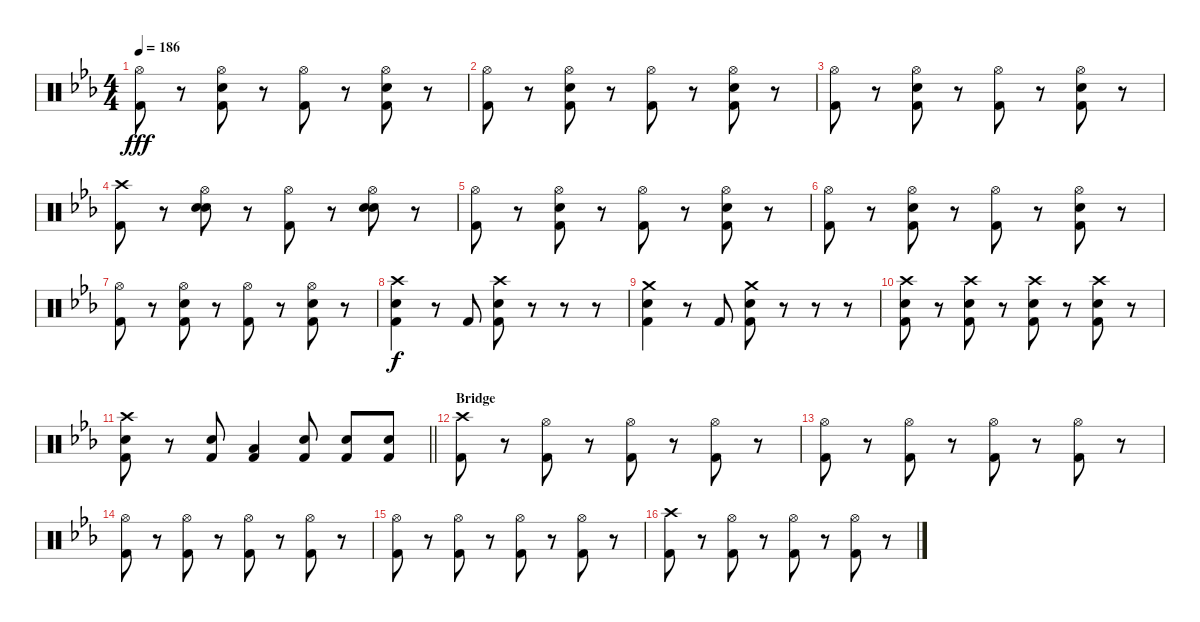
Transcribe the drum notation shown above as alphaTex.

\track "" {instrument percussion}
\staff {score}
\articulation defaults
\ts (4 4)
\tempo 186
\clef neutral
\ks eb
("Hi-Hat (open)" "Kick (hit) 2").8{dy fff} r.8 ("Hi-Hat (open)" "Snare (hit) 2" "Kick (hit) 2").8 r.8 ("Hi-Hat (open)" "Kick (hit) 2").8 r.8 ("Hi-Hat (open)" "Snare (hit) 2" "Kick (hit) 2").8 r.8 |
("Hi-Hat (open)" "Kick (hit) 2").8 r.8 ("Hi-Hat (open)" "Snare (hit) 2" "Kick (hit) 2").8 r.8 ("Hi-Hat (open)" "Kick (hit) 2").8 r.8 ("Hi-Hat (open)" "Snare (hit) 2" "Kick (hit) 2").8 r.8 |
("Hi-Hat (open)" "Kick (hit) 2").8 r.8 ("Hi-Hat (open)" "Snare (hit) 2" "Kick (hit) 2").8 r.8 ("Hi-Hat (open)" "Kick (hit) 2").8 r.8 ("Hi-Hat (open)" "Snare (hit) 2" "Kick (hit) 2").8 r.8 |
("Crash high (hit)" "Kick (hit) 2").8 r.8 ("Hi-Hat (open)" "Snare (hit) 2" "Snare (hit) 2").8 r.8 ("Hi-Hat (open)" "Kick (hit) 2").8 r.8 ("Hi-Hat (open)" "Snare (hit) 2" "Snare (hit) 2").8 r.8 |
("Hi-Hat (open)" "Kick (hit) 2").8 r.8 ("Hi-Hat (open)" "Snare (hit) 2" "Kick (hit) 2").8 r.8 ("Hi-Hat (open)" "Kick (hit) 2").8 r.8 ("Hi-Hat (open)" "Snare (hit) 2" "Kick (hit) 2").8 r.8 |
("Hi-Hat (open)" "Kick (hit) 2").8 r.8 ("Hi-Hat (open)" "Snare (hit) 2" "Kick (hit) 2").8 r.8 ("Hi-Hat (open)" "Kick (hit) 2").8 r.8 ("Hi-Hat (open)" "Snare (hit) 2" "Kick (hit) 2").8 r.8 |
("Hi-Hat (open)" "Kick (hit) 2").8 r.8 ("Hi-Hat (open)" "Snare (hit) 2" "Kick (hit) 2").8 r.8 ("Hi-Hat (open)" "Kick (hit) 2").8 r.8 ("Hi-Hat (open)" "Snare (hit) 2" "Kick (hit) 2").8 r.8 |
("Crash high (hit)" "Snare (hit) 2" "Kick (hit) 2").4{dy f} r.8 "Kick (hit) 2".8 ("Crash high (hit)" "Snare (hit) 2" "Kick (hit) 2").8 r.8 r.8 r.8 |
("Crash medium (hit)" "Snare (hit) 2" "Kick (hit) 2").4 r.8 "Kick (hit) 2".8 ("Crash medium (hit)" "Snare (hit) 2" "Kick (hit) 2").8 r.8 r.8 r.8 |
("Crash high (hit)" "Snare (hit) 2" "Kick (hit) 2").8 r.8 ("Crash high (hit)" "Snare (hit) 2" "Kick (hit) 2").8 r.8 ("Crash high (hit)" "Snare (hit) 2" "Kick (hit) 2").8 r.8 ("Crash high (hit)" "Snare (hit) 2" "Kick (hit) 2").8 r.8 |
\barLineRight lightlight
("Crash high (hit)" "Snare (hit) 2" "Kick (hit) 2").8 r.8 ("Snare (hit) 2" "Kick (hit) 2").8 ("Low Tom (hit)" "Kick (hit) 2").4 ("Snare (hit) 2" "Kick (hit) 2").8 ("Snare (hit) 2" "Kick (hit) 2").8 ("Snare (hit) 2" "Kick (hit) 2").8 |
\section ("" "Bridge")
("Crash high (hit)" "Kick (hit) 2").8 r.8 ("Hi-Hat (open)" "Kick (hit) 2").8 r.8 ("Hi-Hat (open)" "Kick (hit) 2").8 r.8 ("Hi-Hat (open)" "Kick (hit) 2").8 r.8 |
("Hi-Hat (open)" "Kick (hit) 2").8 r.8 ("Hi-Hat (open)" "Kick (hit) 2").8 r.8 ("Hi-Hat (open)" "Kick (hit) 2").8 r.8 ("Hi-Hat (open)" "Kick (hit) 2").8 r.8 |
("Hi-Hat (open)" "Kick (hit) 2").8 r.8 ("Hi-Hat (open)" "Kick (hit) 2").8 r.8 ("Hi-Hat (open)" "Kick (hit) 2").8 r.8 ("Hi-Hat (open)" "Kick (hit) 2").8 r.8 |
("Hi-Hat (open)" "Kick (hit) 2").8 r.8 ("Hi-Hat (open)" "Kick (hit) 2").8 r.8 ("Hi-Hat (open)" "Kick (hit) 2").8 r.8 ("Hi-Hat (open)" "Kick (hit) 2").8 r.8 |
("Crash high (hit)" "Kick (hit) 2").8 r.8 ("Hi-Hat (open)" "Kick (hit) 2").8 r.8 ("Hi-Hat (open)" "Kick (hit) 2").8 r.8 ("Hi-Hat (open)" "Kick (hit) 2").8 r.8
